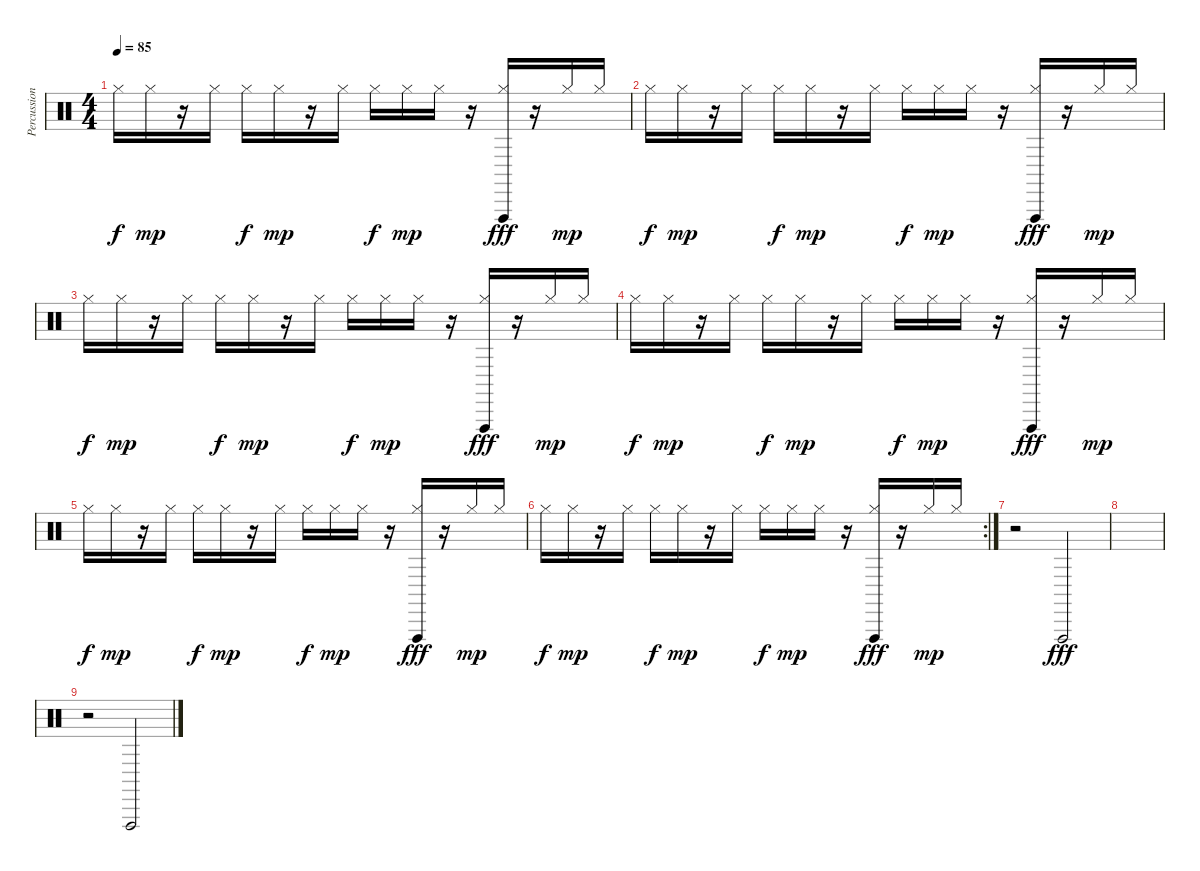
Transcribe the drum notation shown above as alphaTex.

\track ("Percussions" "Percussion") {instrument percussion}
\staff {score}
\articulation defaults
\ts (4 4)
\tempo 85
\clef neutral
\ks c "Hi-Hat (closed)".16{dy f balance 0} "Hi-Hat (closed)".16{dy mp balance 16}
r.16 "Hi-Hat (closed)".16{balance 0} "Hi-Hat (closed)".16{dy f balance 16} "Hi-Hat (closed)".16{dy mp balance 0} r.16 "Hi-Hat (closed)".16{balance 16} "Hi-Hat (closed)".16{dy f balance 8} "Hi-Hat (closed)".16{dy mp balance 16} "Hi-Hat (closed)".16{balance 0} r.16 ("Hi-Hat (closed)" "Vibraslap (hit)").16{dy fff balance 16} r.16 "Hi-Hat (closed)".16{dy mp balance 0} "Hi-Hat (closed)".16{balance 16} |
"Hi-Hat (closed)".16{dy f balance 0} "Hi-Hat (closed)".16{dy mp balance 16} r.16 "Hi-Hat (closed)".16{balance 0} "Hi-Hat (closed)".16{dy f balance 16} "Hi-Hat (closed)".16{dy mp balance 0} r.16 "Hi-Hat (closed)".16{balance 16} "Hi-Hat (closed)".16{dy f balance 8} "Hi-Hat (closed)".16{dy mp balance 16} "Hi-Hat (closed)".16{balance 16} r.16 ("Hi-Hat (closed)" "Vibraslap (hit)").16{dy fff balance 16} r.16 "Hi-Hat (closed)".16{dy mp balance 0} "Hi-Hat (closed)".16{balance 16} |
"Hi-Hat (closed)".16{dy f balance 0} "Hi-Hat (closed)".16{dy mp balance 16} r.16 "Hi-Hat (closed)".16{balance 0} "Hi-Hat (closed)".16{dy f balance 16} "Hi-Hat (closed)".16{dy mp balance 0} r.16 "Hi-Hat (closed)".16{balance 16} "Hi-Hat (closed)".16{dy f balance 0} "Hi-Hat (closed)".16{dy mp balance 16} "Hi-Hat (closed)".16{balance 0} r.16 ("Hi-Hat (closed)" "Vibraslap (hit)").16{dy fff balance 16} r.16 "Hi-Hat (closed)".16{dy mp balance 0} "Hi-Hat (closed)".16{balance 16} |
"Hi-Hat (closed)".16{dy f balance 0} "Hi-Hat (closed)".16{dy mp balance 16} r.16 "Hi-Hat (closed)".16{balance 0} "Hi-Hat (closed)".16{dy f balance 16} "Hi-Hat (closed)".16{dy mp balance 0} r.16 "Hi-Hat (closed)".16{balance 16} "Hi-Hat (closed)".16{dy f balance 8} "Hi-Hat (closed)".16{dy mp balance 16} "Hi-Hat (closed)".16{balance 16} r.16 ("Hi-Hat (closed)" "Vibraslap (hit)").16{dy fff balance 16} r.16 "Hi-Hat (closed)".16{dy mp balance 0} "Hi-Hat (closed)".16{balance 16} |
"Hi-Hat (closed)".16{dy f balance 0} "Hi-Hat (closed)".16{dy mp balance 16} r.16 "Hi-Hat (closed)".16{balance 0} "Hi-Hat (closed)".16{dy f balance 16} "Hi-Hat (closed)".16{dy mp balance 0} r.16 "Hi-Hat (closed)".16{balance 16} "Hi-Hat (closed)".16{dy f balance 0} "Hi-Hat (closed)".16{dy mp balance 16} "Hi-Hat (closed)".16{balance 0} r.16 ("Hi-Hat (closed)" "Vibraslap (hit)").16{dy fff balance 16} r.16 "Hi-Hat (closed)".16{dy mp balance 0} "Hi-Hat (closed)".16{balance 16} |
\rc 2 "Hi-Hat (closed)".16{dy f balance 0} "Hi-Hat (closed)".16{dy mp balance 16}
r.16 "Hi-Hat (closed)".16{balance 0} "Hi-Hat (closed)".16{dy f balance 16} "Hi-Hat (closed)".16{dy mp balance 0} r.16 "Hi-Hat (closed)".16{balance 16} "Hi-Hat (closed)".16{dy f balance 8} "Hi-Hat (closed)".16{dy mp balance 16} "Hi-Hat (closed)".16{balance 16} r.16 ("Hi-Hat (closed)" "Vibraslap (hit)").16{dy fff balance 16} r.16 "Hi-Hat (closed)".16{dy mp balance 0} "Hi-Hat (closed)".16{balance 16} |
r.2 "Vibraslap (hit)".2{dy fff} |
|
r.2 "Vibraslap (hit)".2
